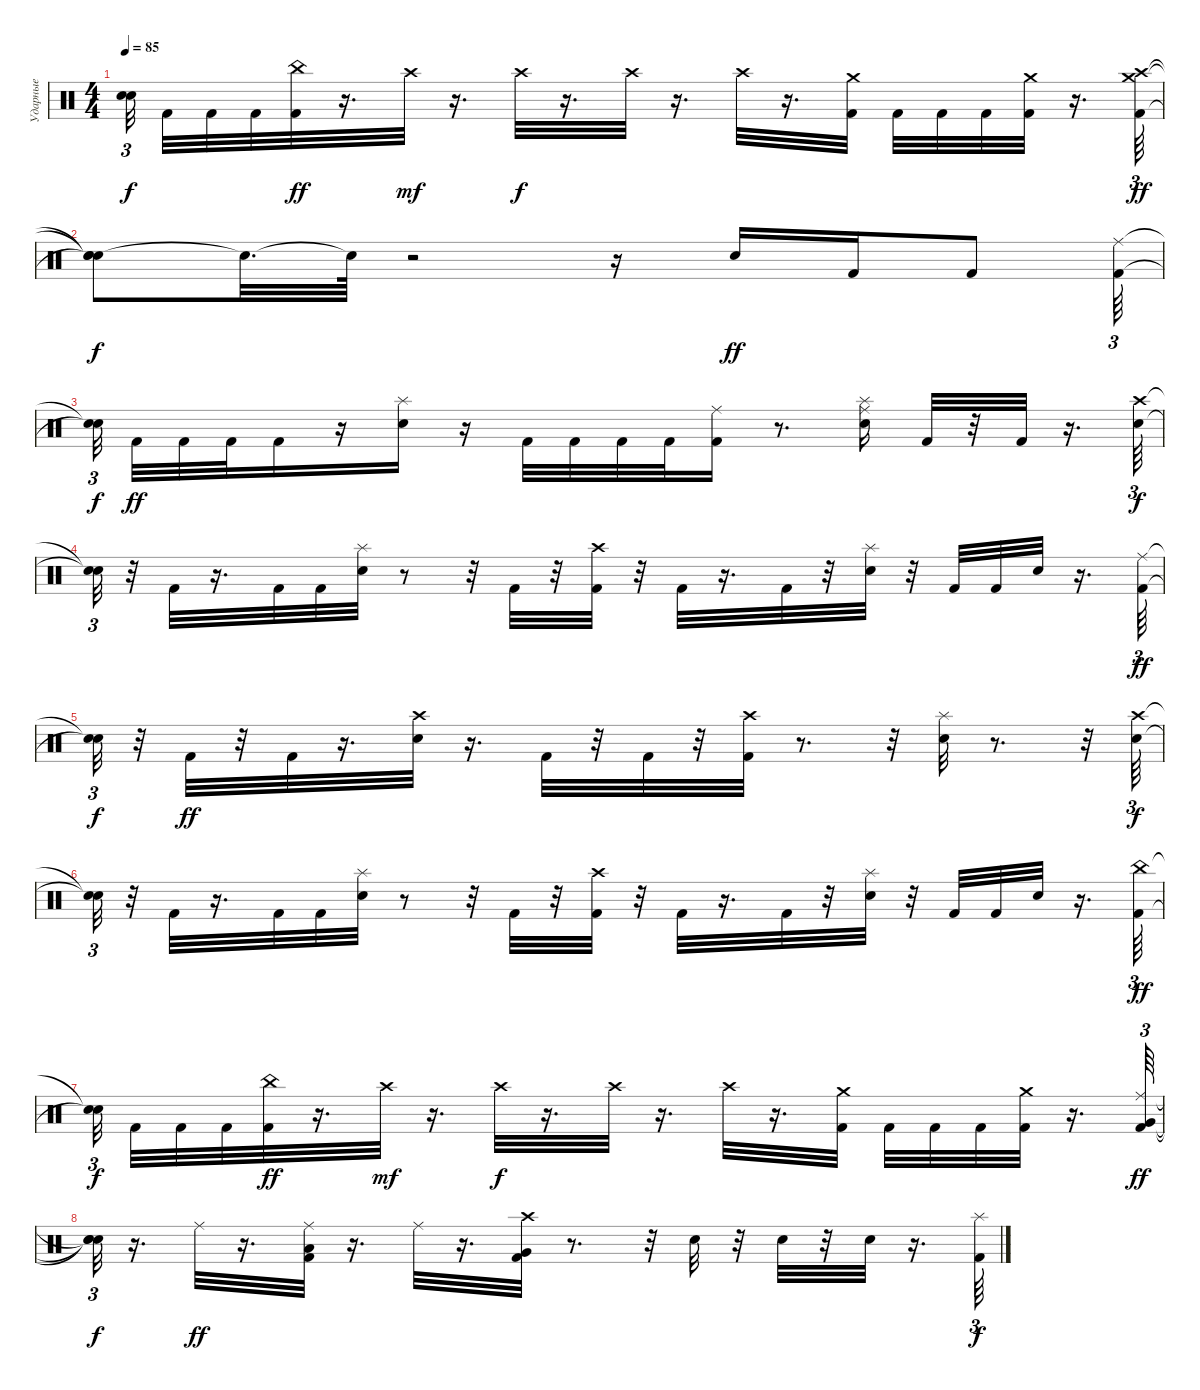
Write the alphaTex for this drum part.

\track ("Ударные" "Ударные") {instrument percussion}
\staff {score}
\articulation defaults
\ts (4 4)
\tempo 85
\clef neutral
\ks c
("Snare (hit)"{t} "Snare (hit)"{t}).32{tu (3 2) dy f beam splitsecondary} "Kick (hit) 2".32 "Kick (hit) 2".32 "Kick (hit) 2".32 ("China (hit)" "Kick (hit) 2").32{dy ff} r.16{d} "Crash high (hit)".32{dy mf} r.16{d} "Crash high (hit)".32{dy f} r.16{d} "Crash high (hit)".32 r.16{d} "Crash high (hit)".32 r.16{d} ("Crash medium (hit)" "Kick (hit) 2").32 "Kick (hit) 2".32 "Kick (hit) 2".32 "Kick (hit) 2".32 ("Crash medium (hit)" "Kick (hit) 2").32 r.16{d} ("Crash medium (hit)" "Crash high (hit)" "Kick (hit) 2").64{tu (3 2) dy ff} |
("Snare (hit)"{t} "Snare (hit)"{t} "Snare (hit)"{t}).8{dy f} "Snare (hit)"{t}.32{d} "Snare (hit)"{t}.64 r.2 r.16 "Snare (hit) 2".16{dy ff} "Kick (hit) 2".16 "Kick (hit) 2".8 ("Ride (middle)" "Kick (hit) 2").64{tu (3 2)} |
("Snare (hit)"{t} "Snare (hit)"{t}).32{tu (3 2) dy f beam splitsecondary} "Kick (hit) 2".32{dy ff} "Kick (hit) 2".32 "Kick (hit) 2".32 "Kick (hit) 2".16 r.16 ("Splash (hit)" "Snare (hit) 2").16 r.16 "Kick (hit) 2".32 "Kick (hit) 2".32 "Kick (hit) 2".32 "Kick (hit) 2".32 ("Kick (hit) 2" "Ride (middle)").16 r.8{d} ("Splash (hit)" "Ride (middle)" "Snare (hit) 2").16 "Kick (hit) 2".32 r.32 "Kick (hit) 2".32 r.16{d} ("Snare (hit) 2" "Crash high (hit)").64{tu (3 2) dy f} |
("Snare (hit)"{t} "Snare (hit)"{t}).32{tu (3 2)} r.32 "Kick (hit) 2".32 r.16{d} "Kick (hit) 2".32 "Kick (hit) 2".32 ("Snare (hit) 2" "Splash (hit)").32 r.8 r.32 "Kick (hit) 2".32 r.32 ("Kick (hit) 2" "Crash high (hit)").32 r.32 "Kick (hit) 2".32 r.16{d} "Kick (hit) 2".32 r.32 ("Snare (hit) 2" "Splash (hit)").32 r.32 "Kick (hit) 2".32 "Kick (hit) 2".32 "Snare (hit) 2".32 r.16{d} ("Ride (middle)" "Kick (hit) 2").64{tu (3 2) dy ff} |
("Snare (hit)"{t} "Snare (hit)"{t}).32{tu (3 2) dy f} r.32 "Kick (hit) 2".32{dy ff} r.32 "Kick (hit) 2".32 r.16{d} ("Crash high (hit)" "Snare (hit) 2").32 r.16{d} "Kick (hit) 2".32 r.32 "Kick (hit) 2".32 r.32 ("Crash high (hit)" "Kick (hit) 2").32 r.8{d} r.32 ("Snare (hit) 2" "Splash (hit)").32 r.8{d} r.32 ("Snare (hit) 2" "Crash high (hit)").64{tu (3 2) dy f} |
("Snare (hit)"{t} "Snare (hit)"{t}).32{tu (3 2)} r.32 "Kick (hit) 2".32 r.16{d} "Kick (hit) 2".32 "Kick (hit) 2".32 ("Snare (hit) 2" "Splash (hit)").32 r.8 r.32 "Kick (hit) 2".32 r.32 ("Kick (hit) 2" "Crash high (hit)").32 r.32 "Kick (hit) 2".32 r.16{d} "Kick (hit) 2".32 r.32 ("Snare (hit) 2" "Splash (hit)").32 r.32 "Kick (hit) 2".32 "Kick (hit) 2".32 "Snare (hit) 2".32 r.16{d} ("China (hit)" "Kick (hit) 2").64{tu (3 2) dy ff} |
("Snare (hit)"{t} "Snare (hit)"{t}).32{tu (3 2) dy f beam splitsecondary} "Kick (hit) 2".32 "Kick (hit) 2".32 "Kick (hit) 2".32 ("China (hit)" "Kick (hit) 2").32{dy ff} r.16{d} "Crash high (hit)".32{dy mf} r.16{d} "Crash high (hit)".32{dy f} r.16{d} "Crash high (hit)".32 r.16{d} "Crash high (hit)".32 r.16{d} ("Crash medium (hit)" "Kick (hit) 2").32 "Kick (hit) 2".32 "Kick (hit) 2".32 "Kick (hit) 2".32 ("Crash medium (hit)" "Kick (hit) 2").32 r.16{d} ("Very Low Tom (hit)" "Ride (middle)" "Kick (hit) 2").64{tu (3 2) dy ff} |
("Snare (hit)"{t} "Snare (hit)"{t} "Snare (hit)"{t}).32{tu (3 2) dy f} r.16{d} "Ride (middle)".32{dy ff} r.16{d} ("Low Floor Tom (hit)" "Ride (middle)" "Kick (hit) 2").32 r.16{d} "Ride (middle)".32 r.16{d} ("Crash high (hit)" "Very Low Tom (hit)" "Kick (hit) 2").32 r.8{d} r.32 "Electric Snare (hit)".32 r.32 "Electric Snare (hit)".32 r.32 "Electric Snare (hit)".32 r.16{d} ("Splash (hit)" "Kick (hit) 2").64{tu (3 2) dy f}
